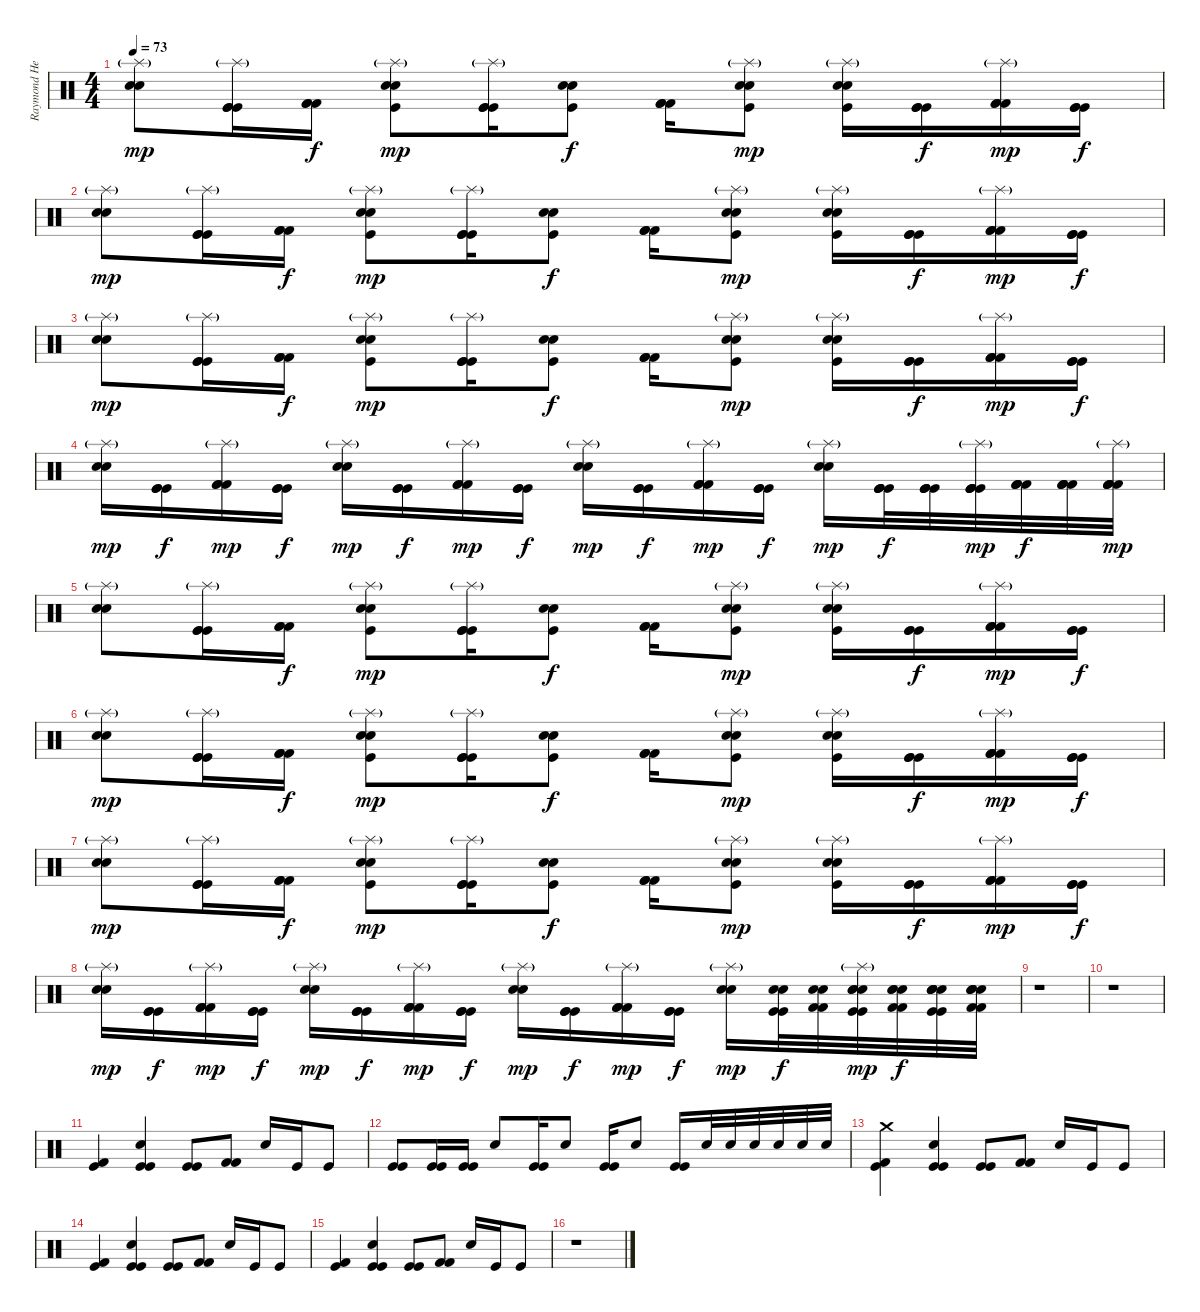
\track ("Raymond Herrera" "Raymond He") {instrument percussion}
\staff {score}
\articulation defaults
\ts (4 4)
\tempo 73
\clef neutral
\ks c
("Splash (hit)"{g} "Electric Snare (hit)" "Electric Snare (hit)").8{dy mp} ("Splash (hit)"{g} "Kick (hit)" "Kick (hit)" "Kick (hit)").16 ("Kick (hit) 2" "Kick (hit) 2" "Kick (hit) 2").16{dy f} ("Splash (hit)"{g} "Electric Snare (hit)" "Electric Snare (hit)" "Kick (hit)").8{dy mp} ("Splash (hit)"{g} "Kick (hit)" "Kick (hit)" "Kick (hit)").16 ("Electric Snare (hit)" "Electric Snare (hit)" "Kick (hit)").8{dy f} ("Kick (hit) 2" "Kick (hit) 2" "Kick (hit) 2").16 ("Splash (hit)"{g} "Electric Snare (hit)" "Electric Snare (hit)" "Kick (hit)").8{dy mp} ("Splash (hit)"{g} "Electric Snare (hit)" "Electric Snare (hit)" "Kick (hit)").16 ("Kick (hit)" "Kick (hit)" "Kick (hit)").16{dy f} ("Splash (hit)"{g} "Kick (hit) 2" "Kick (hit) 2" "Kick (hit) 2").16{dy mp} ("Kick (hit)" "Kick (hit)" "Kick (hit)").16{dy f} |
("Splash (hit)"{g} "Electric Snare (hit)" "Electric Snare (hit)").8{dy mp} ("Splash (hit)"{g} "Kick (hit)" "Kick (hit)" "Kick (hit)").16 ("Kick (hit) 2" "Kick (hit) 2" "Kick (hit) 2").16{dy f} ("Splash (hit)"{g} "Electric Snare (hit)" "Electric Snare (hit)" "Kick (hit)").8{dy mp} ("Splash (hit)"{g} "Kick (hit)" "Kick (hit)" "Kick (hit)").16 ("Electric Snare (hit)" "Electric Snare (hit)" "Kick (hit)").8{dy f} ("Kick (hit) 2" "Kick (hit) 2" "Kick (hit) 2").16 ("Splash (hit)"{g} "Electric Snare (hit)" "Electric Snare (hit)" "Kick (hit)").8{dy mp} ("Splash (hit)"{g} "Electric Snare (hit)" "Electric Snare (hit)" "Kick (hit)").16 ("Kick (hit)" "Kick (hit)" "Kick (hit)").16{dy f} ("Splash (hit)"{g} "Kick (hit) 2" "Kick (hit) 2" "Kick (hit) 2").16{dy mp} ("Kick (hit)" "Kick (hit)" "Kick (hit)").16{dy f} |
("Splash (hit)"{g} "Electric Snare (hit)" "Electric Snare (hit)").8{dy mp} ("Splash (hit)"{g} "Kick (hit)" "Kick (hit)" "Kick (hit)").16 ("Kick (hit) 2" "Kick (hit) 2" "Kick (hit) 2").16{dy f} ("Splash (hit)"{g} "Electric Snare (hit)" "Electric Snare (hit)" "Kick (hit)").8{dy mp} ("Splash (hit)"{g} "Kick (hit)" "Kick (hit)" "Kick (hit)").16 ("Electric Snare (hit)" "Electric Snare (hit)" "Kick (hit)").8{dy f} ("Kick (hit) 2" "Kick (hit) 2" "Kick (hit) 2").16 ("Splash (hit)"{g} "Electric Snare (hit)" "Electric Snare (hit)" "Kick (hit)").8{dy mp} ("Splash (hit)"{g} "Electric Snare (hit)" "Electric Snare (hit)" "Kick (hit)").16 ("Kick (hit)" "Kick (hit)" "Kick (hit)").16{dy f} ("Splash (hit)"{g} "Kick (hit) 2" "Kick (hit) 2" "Kick (hit) 2").16{dy mp} ("Kick (hit)" "Kick (hit)" "Kick (hit)").16{dy f} |
("Splash (hit)"{g} "Electric Snare (hit)" "Electric Snare (hit)").16{dy mp} ("Kick (hit)" "Kick (hit)" "Kick (hit)").16{dy f} ("Splash (hit)"{g} "Kick (hit) 2" "Kick (hit) 2" "Kick (hit) 2").16{dy mp} ("Kick (hit)" "Kick (hit)" "Kick (hit)").16{dy f} ("Splash (hit)"{g} "Electric Snare (hit)" "Electric Snare (hit)").16{dy mp} ("Kick (hit)" "Kick (hit)" "Kick (hit)").16{dy f} ("Splash (hit)"{g} "Kick (hit) 2" "Kick (hit) 2" "Kick (hit) 2").16{dy mp} ("Kick (hit)" "Kick (hit)" "Kick (hit)").16{dy f} ("Splash (hit)"{g} "Electric Snare (hit)" "Electric Snare (hit)").16{dy mp} ("Kick (hit)" "Kick (hit)" "Kick (hit)").16{dy f} ("Splash (hit)"{g} "Kick (hit) 2" "Kick (hit) 2" "Kick (hit) 2").16{dy mp} ("Kick (hit)" "Kick (hit)" "Kick (hit)").16{dy f} ("Splash (hit)"{g} "Electric Snare (hit)" "Electric Snare (hit)").16{dy mp} ("Kick (hit)" "Kick (hit)" "Kick (hit)" "Kick (hit)").32{dy f} ("Kick (hit)" "Kick (hit)" "Kick (hit)" "Kick (hit)").32 ("Splash (hit)"{g} "Kick (hit)" "Kick (hit)" "Kick (hit)" "Kick (hit)").32{dy mp} ("Kick (hit) 2" "Kick (hit) 2" "Kick (hit) 2" "Kick (hit) 2").32{dy f} ("Kick (hit) 2" "Kick (hit) 2" "Kick (hit) 2" "Kick (hit) 2").32 ("Splash (hit)"{g} "Kick (hit) 2" "Kick (hit) 2" "Kick (hit) 2" "Kick (hit) 2").32{dy mp} |
("Splash (hit)"{g} "Electric Snare (hit)" "Electric Snare (hit)").8 ("Splash (hit)"{g} "Kick (hit)" "Kick (hit)" "Kick (hit)").16 ("Kick (hit) 2" "Kick (hit) 2" "Kick (hit) 2").16{dy f} ("Splash (hit)"{g} "Electric Snare (hit)" "Electric Snare (hit)" "Kick (hit)").8{dy mp} ("Splash (hit)"{g} "Kick (hit)" "Kick (hit)" "Kick (hit)").16 ("Electric Snare (hit)" "Electric Snare (hit)" "Kick (hit)").8{dy f} ("Kick (hit) 2" "Kick (hit) 2" "Kick (hit) 2").16 ("Splash (hit)"{g} "Electric Snare (hit)" "Electric Snare (hit)" "Kick (hit)").8{dy mp} ("Splash (hit)"{g} "Electric Snare (hit)" "Electric Snare (hit)" "Kick (hit)").16 ("Kick (hit)" "Kick (hit)" "Kick (hit)").16{dy f} ("Splash (hit)"{g} "Kick (hit) 2" "Kick (hit) 2" "Kick (hit) 2").16{dy mp} ("Kick (hit)" "Kick (hit)" "Kick (hit)").16{dy f} |
("Splash (hit)"{g} "Electric Snare (hit)" "Electric Snare (hit)").8{dy mp} ("Splash (hit)"{g} "Kick (hit)" "Kick (hit)" "Kick (hit)").16 ("Kick (hit) 2" "Kick (hit) 2" "Kick (hit) 2").16{dy f} ("Splash (hit)"{g} "Electric Snare (hit)" "Electric Snare (hit)" "Kick (hit)").8{dy mp} ("Splash (hit)"{g} "Kick (hit)" "Kick (hit)" "Kick (hit)").16 ("Electric Snare (hit)" "Electric Snare (hit)" "Kick (hit)").8{dy f} ("Kick (hit) 2" "Kick (hit) 2" "Kick (hit) 2").16 ("Splash (hit)"{g} "Electric Snare (hit)" "Electric Snare (hit)" "Kick (hit)").8{dy mp} ("Splash (hit)"{g} "Electric Snare (hit)" "Electric Snare (hit)" "Kick (hit)").16 ("Kick (hit)" "Kick (hit)" "Kick (hit)").16{dy f} ("Splash (hit)"{g} "Kick (hit) 2" "Kick (hit) 2" "Kick (hit) 2").16{dy mp} ("Kick (hit)" "Kick (hit)" "Kick (hit)").16{dy f} |
("Splash (hit)"{g} "Electric Snare (hit)" "Electric Snare (hit)").8{dy mp} ("Splash (hit)"{g} "Kick (hit)" "Kick (hit)" "Kick (hit)").16 ("Kick (hit) 2" "Kick (hit) 2" "Kick (hit) 2").16{dy f} ("Splash (hit)"{g} "Electric Snare (hit)" "Electric Snare (hit)" "Kick (hit)").8{dy mp} ("Splash (hit)"{g} "Kick (hit)" "Kick (hit)" "Kick (hit)").16 ("Electric Snare (hit)" "Electric Snare (hit)" "Kick (hit)").8{dy f} ("Kick (hit) 2" "Kick (hit) 2" "Kick (hit) 2").16 ("Splash (hit)"{g} "Electric Snare (hit)" "Electric Snare (hit)" "Kick (hit)").8{dy mp} ("Splash (hit)"{g} "Electric Snare (hit)" "Electric Snare (hit)" "Kick (hit)").16 ("Kick (hit)" "Kick (hit)" "Kick (hit)").16{dy f} ("Splash (hit)"{g} "Kick (hit) 2" "Kick (hit) 2" "Kick (hit) 2").16{dy mp} ("Kick (hit)" "Kick (hit)" "Kick (hit)").16{dy f} |
("Splash (hit)"{g} "Electric Snare (hit)" "Electric Snare (hit)").16{dy mp} ("Kick (hit)" "Kick (hit)" "Kick (hit)").16{dy f} ("Splash (hit)"{g} "Kick (hit) 2" "Kick (hit) 2" "Kick (hit) 2").16{dy mp} ("Kick (hit)" "Kick (hit)" "Kick (hit)").16{dy f} ("Splash (hit)"{g} "Electric Snare (hit)" "Electric Snare (hit)").16{dy mp} ("Kick (hit)" "Kick (hit)" "Kick (hit)").16{dy f} ("Splash (hit)"{g} "Kick (hit) 2" "Kick (hit) 2" "Kick (hit) 2").16{dy mp} ("Kick (hit)" "Kick (hit)" "Kick (hit)").16{dy f} ("Splash (hit)"{g} "Electric Snare (hit)" "Electric Snare (hit)").16{dy mp} ("Kick (hit)" "Kick (hit)" "Kick (hit)").16{dy f} ("Splash (hit)"{g} "Kick (hit) 2" "Kick (hit) 2" "Kick (hit) 2").16{dy mp} ("Kick (hit)" "Kick (hit)" "Kick (hit)").16{dy f} ("Splash (hit)"{g} "Electric Snare (hit)" "Electric Snare (hit)").16{dy mp} ("Electric Snare (hit)" "Electric Snare (hit)" "Kick (hit)" "Kick (hit)").32{dy f} ("Electric Snare (hit)" "Electric Snare (hit)" "Kick (hit) 2" "Kick (hit) 2").32 ("Splash (hit)"{g} "Electric Snare (hit)" "Electric Snare (hit)" "Electric Snare (hit)" "Kick (hit)" "Kick (hit)").32{dy mp} ("Electric Snare (hit)" "Electric Snare (hit)" "Electric Snare (hit)" "Kick (hit) 2" "Kick (hit) 2").32{dy f} ("Electric Snare (hit)" "Electric Snare (hit)" "Electric Snare (hit)" "Electric Snare (hit)" "Kick (hit)" "Kick (hit)").32 ("Electric Snare (hit)" "Electric Snare (hit)" "Electric Snare (hit)" "Electric Snare (hit)" "Kick (hit) 2" "Kick (hit) 2").32 |
r.1 |
r.1 |
("Kick (hit) 2" "Kick (hit)").4 ("Electric Snare (hit)" "Kick (hit)" "Kick (hit)").4 ("Kick (hit)" "Kick (hit)").8 ("Kick (hit) 2" "Kick (hit) 2").8 "Electric Snare (hit)".16 "Kick (hit)".16 "Kick (hit)".8 |
("Kick (hit)" "Kick (hit)").8 ("Kick (hit)" "Kick (hit)").16 ("Kick (hit)" "Kick (hit)").16 "Electric Snare (hit)".8 ("Kick (hit)" "Kick (hit)").16 "Electric Snare (hit)".8 ("Kick (hit)" "Kick (hit)").16 "Electric Snare (hit)".8 ("Kick (hit)" "Kick (hit)").16 "Electric Snare (hit)".32 "Electric Snare (hit)".32 "Electric Snare (hit)".32 "Electric Snare (hit)".32 "Electric Snare (hit)".32 "Electric Snare (hit)".32 |
("Crash medium (hit)" "Kick (hit) 2" "Kick (hit)").4 ("Electric Snare (hit)" "Kick (hit)" "Kick (hit)").4 ("Kick (hit)" "Kick (hit)").8 ("Kick (hit) 2" "Kick (hit) 2").8 "Electric Snare (hit)".16 "Kick (hit)".16 "Kick (hit)".8 |
("Kick (hit) 2" "Kick (hit)").4 ("Electric Snare (hit)" "Kick (hit)" "Kick (hit)").4 ("Kick (hit)" "Kick (hit)").8 ("Kick (hit) 2" "Kick (hit) 2").8 "Electric Snare (hit)".16 "Kick (hit)".16 "Kick (hit)".8 |
("Kick (hit) 2" "Kick (hit)").4 ("Electric Snare (hit)" "Kick (hit)" "Kick (hit)").4 ("Kick (hit)" "Kick (hit)").8 ("Kick (hit) 2" "Kick (hit) 2").8 "Electric Snare (hit)".16 "Kick (hit)".16 "Kick (hit)".8 |
r.1
